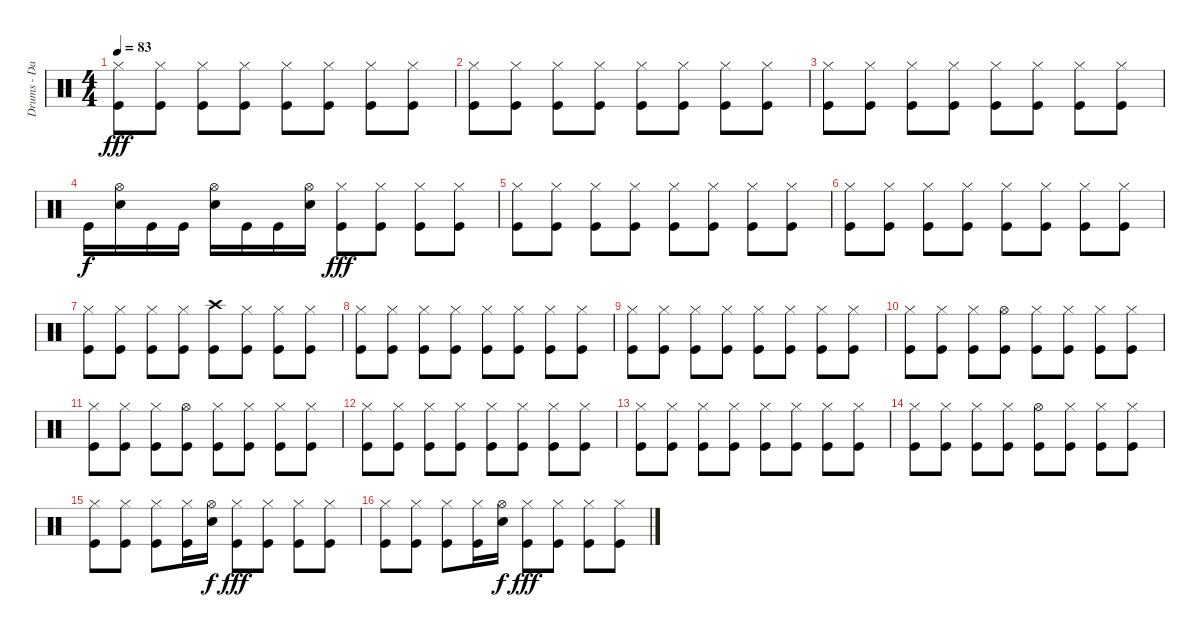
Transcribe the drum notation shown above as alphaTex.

\track ("Drums - Daniel Zimmermann" "Drums - Da") {instrument percussion}
\staff {score}
\articulation defaults
\ts (4 4)
\tempo 83
\clef neutral
\ks c
("Kick (hit)" "Hi-Hat (closed)").8{dy fff} ("Kick (hit)" "Hi-Hat (closed)").8 ("Kick (hit)" "Hi-Hat (closed)").8 ("Kick (hit)" "Hi-Hat (closed)").8 ("Kick (hit)" "Hi-Hat (closed)").8 ("Kick (hit)" "Hi-Hat (closed)").8 ("Kick (hit)" "Hi-Hat (closed)").8 ("Kick (hit)" "Hi-Hat (closed)").8 |
("Kick (hit)" "Hi-Hat (closed)").8 ("Kick (hit)" "Hi-Hat (closed)").8 ("Kick (hit)" "Hi-Hat (closed)").8 ("Kick (hit)" "Hi-Hat (closed)").8 ("Kick (hit)" "Hi-Hat (closed)").8 ("Kick (hit)" "Hi-Hat (closed)").8 ("Kick (hit)" "Hi-Hat (closed)").8 ("Kick (hit)" "Hi-Hat (closed)").8 |
("Kick (hit)" "Hi-Hat (closed)").8 ("Kick (hit)" "Hi-Hat (closed)").8 ("Kick (hit)" "Hi-Hat (closed)").8 ("Kick (hit)" "Hi-Hat (closed)").8 ("Kick (hit)" "Hi-Hat (closed)").8 ("Kick (hit)" "Hi-Hat (closed)").8 ("Kick (hit)" "Hi-Hat (closed)").8 ("Kick (hit)" "Hi-Hat (closed)").8 |
"Kick (hit)".16{dy f} ("Electric Snare (hit)" "Hi-Hat (open)").16 "Kick (hit)".16 "Kick (hit)".16 ("Electric Snare (hit)" "Hi-Hat (open)").16 "Kick (hit)".16 "Kick (hit)".16 ("Electric Snare (hit)" "Hi-Hat (open)").16 ("Kick (hit)" "Hi-Hat (closed)").8{dy fff} ("Kick (hit)" "Hi-Hat (closed)").8 ("Kick (hit)" "Hi-Hat (closed)").8 ("Kick (hit)" "Hi-Hat (closed)").8 |
("Kick (hit)" "Hi-Hat (closed)").8 ("Kick (hit)" "Hi-Hat (closed)").8 ("Kick (hit)" "Hi-Hat (closed)").8 ("Kick (hit)" "Hi-Hat (closed)").8 ("Kick (hit)" "Hi-Hat (closed)").8 ("Kick (hit)" "Hi-Hat (closed)").8 ("Kick (hit)" "Hi-Hat (closed)").8 ("Kick (hit)" "Hi-Hat (closed)").8 |
("Kick (hit)" "Hi-Hat (closed)").8 ("Kick (hit)" "Hi-Hat (closed)").8 ("Kick (hit)" "Hi-Hat (closed)").8 ("Kick (hit)" "Hi-Hat (closed)").8 ("Kick (hit)" "Hi-Hat (closed)").8 ("Kick (hit)" "Hi-Hat (closed)").8 ("Kick (hit)" "Hi-Hat (closed)").8 ("Kick (hit)" "Hi-Hat (closed)").8 |
("Kick (hit)" "Hi-Hat (closed)").8 ("Kick (hit)" "Hi-Hat (closed)").8 ("Kick (hit)" "Hi-Hat (closed)").8 ("Kick (hit)" "Hi-Hat (closed)").8 ("Kick (hit)" "Crash high (hit)").8 ("Kick (hit)" "Hi-Hat (closed)").8 ("Kick (hit)" "Hi-Hat (closed)").8 ("Kick (hit)" "Hi-Hat (closed)").8 |
("Kick (hit)" "Hi-Hat (closed)").8 ("Kick (hit)" "Hi-Hat (closed)").8 ("Kick (hit)" "Hi-Hat (closed)").8 ("Kick (hit)" "Hi-Hat (closed)").8 ("Kick (hit)" "Hi-Hat (closed)").8 ("Kick (hit)" "Hi-Hat (closed)").8 ("Kick (hit)" "Hi-Hat (closed)").8 ("Kick (hit)" "Hi-Hat (closed)").8 |
("Kick (hit)" "Hi-Hat (closed)").8 ("Kick (hit)" "Hi-Hat (closed)").8 ("Kick (hit)" "Hi-Hat (closed)").8 ("Kick (hit)" "Hi-Hat (closed)").8 ("Kick (hit)" "Hi-Hat (closed)").8 ("Kick (hit)" "Hi-Hat (closed)").8 ("Kick (hit)" "Hi-Hat (closed)").8 ("Kick (hit)" "Hi-Hat (closed)").8 |
("Kick (hit)" "Hi-Hat (closed)").8 ("Kick (hit)" "Hi-Hat (closed)").8 ("Kick (hit)" "Hi-Hat (closed)").8 ("Kick (hit)" "Hi-Hat (open)").8 ("Kick (hit)" "Hi-Hat (closed)").8 ("Kick (hit)" "Hi-Hat (closed)").8 ("Kick (hit)" "Hi-Hat (closed)").8 ("Kick (hit)" "Hi-Hat (closed)").8 |
("Kick (hit)" "Hi-Hat (closed)").8 ("Kick (hit)" "Hi-Hat (closed)").8 ("Kick (hit)" "Hi-Hat (closed)").8 ("Kick (hit)" "Hi-Hat (open)").8 ("Kick (hit)" "Hi-Hat (closed)").8 ("Kick (hit)" "Hi-Hat (closed)").8 ("Kick (hit)" "Hi-Hat (closed)").8 ("Kick (hit)" "Hi-Hat (closed)").8 |
("Kick (hit)" "Hi-Hat (closed)").8 ("Kick (hit)" "Hi-Hat (closed)").8 ("Kick (hit)" "Hi-Hat (closed)").8 ("Kick (hit)" "Hi-Hat (closed)").8 ("Kick (hit)" "Hi-Hat (closed)").8 ("Kick (hit)" "Hi-Hat (closed)").8 ("Kick (hit)" "Hi-Hat (closed)").8 ("Kick (hit)" "Hi-Hat (closed)").8 |
("Kick (hit)" "Hi-Hat (closed)").8 ("Kick (hit)" "Hi-Hat (closed)").8 ("Kick (hit)" "Hi-Hat (closed)").8 ("Kick (hit)" "Hi-Hat (closed)").8 ("Kick (hit)" "Hi-Hat (closed)").8 ("Kick (hit)" "Hi-Hat (closed)").8 ("Kick (hit)" "Hi-Hat (closed)").8 ("Kick (hit)" "Hi-Hat (closed)").8 |
("Kick (hit)" "Hi-Hat (closed)").8 ("Kick (hit)" "Hi-Hat (closed)").8 ("Kick (hit)" "Hi-Hat (closed)").8 ("Kick (hit)" "Hi-Hat (closed)").8 ("Kick (hit)" "Hi-Hat (open)").8 ("Kick (hit)" "Hi-Hat (closed)").8 ("Kick (hit)" "Hi-Hat (closed)").8 ("Kick (hit)" "Hi-Hat (closed)").8 |
("Kick (hit)" "Hi-Hat (closed)").8 ("Kick (hit)" "Hi-Hat (closed)").8 ("Kick (hit)" "Hi-Hat (closed)").8 ("Kick (hit)" "Hi-Hat (closed)").16 ("Electric Snare (hit)" "Hi-Hat (open)").16{dy f} ("Kick (hit)" "Hi-Hat (closed)").8{dy fff} ("Kick (hit)" "Hi-Hat (closed)").8 ("Kick (hit)" "Hi-Hat (closed)").8 ("Kick (hit)" "Hi-Hat (closed)").8 |
("Kick (hit)" "Hi-Hat (closed)").8 ("Kick (hit)" "Hi-Hat (closed)").8 ("Kick (hit)" "Hi-Hat (closed)").8 ("Kick (hit)" "Hi-Hat (closed)").16 ("Electric Snare (hit)" "Hi-Hat (open)").16{dy f} ("Kick (hit)" "Hi-Hat (closed)").8{dy fff} ("Kick (hit)" "Hi-Hat (closed)").8 ("Kick (hit)" "Hi-Hat (closed)").8 ("Kick (hit)" "Hi-Hat (closed)").8
